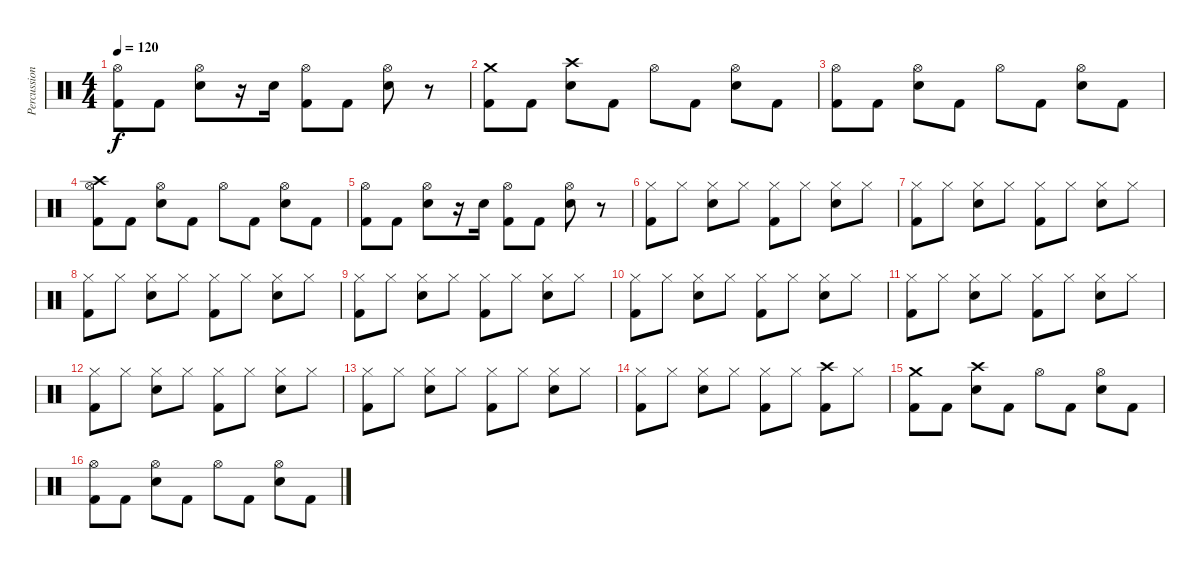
\track ("Percussion" "Percussion") {instrument percussion}
\staff {score}
\articulation defaults
\ts (4 4)
\tempo 120
\clef neutral
\ks c
("Hi-Hat (open)" "Kick (hit) 2").8{dy f} "Kick (hit) 2".8 ("Hi-Hat (open)" "Snare (hit) 2").8 r.16 "Snare (hit) 2".16 ("Hi-Hat (open)" "Kick (hit) 2").8 "Kick (hit) 2".8 ("Hi-Hat (open)" "Snare (hit) 2").8 r.8 |
("Crash medium (hit)" "Kick (hit) 2").8 "Kick (hit) 2".8 ("Crash high (hit)" "Snare (hit) 2").8 "Kick (hit) 2".8 "Hi-Hat (open)".8 "Kick (hit) 2".8 ("Hi-Hat (open)" "Snare (hit) 2").8 "Kick (hit) 2".8 |
("Hi-Hat (open)" "Kick (hit) 2").8 "Kick (hit) 2".8 ("Hi-Hat (open)" "Snare (hit) 2").8 "Kick (hit) 2".8 "Hi-Hat (open)".8 "Kick (hit) 2".8 ("Hi-Hat (open)" "Snare (hit) 2").8 "Kick (hit) 2".8 |
("Hi-Hat (open)" "Crash high (hit)" "Kick (hit) 2").8 "Kick (hit) 2".8 ("Hi-Hat (open)" "Snare (hit) 2").8 "Kick (hit) 2".8 "Hi-Hat (open)".8 "Kick (hit) 2".8 ("Hi-Hat (open)" "Snare (hit) 2").8 "Kick (hit) 2".8 |
("Hi-Hat (open)" "Kick (hit) 2").8 "Kick (hit) 2".8 ("Hi-Hat (open)" "Snare (hit) 2").8 r.16 "Snare (hit) 2".16 ("Hi-Hat (open)" "Kick (hit) 2").8 "Kick (hit) 2".8 ("Hi-Hat (open)" "Snare (hit) 2").8 r.8 |
("Hi-Hat (closed)" "Kick (hit) 2").8 "Hi-Hat (closed)".8 ("Hi-Hat (closed)" "Electric Snare (hit)").8 "Hi-Hat (closed)".8 ("Hi-Hat (closed)" "Kick (hit) 2").8 "Hi-Hat (closed)".8 ("Hi-Hat (closed)" "Snare (hit) 2").8 "Hi-Hat (closed)".8 |
("Hi-Hat (closed)" "Kick (hit) 2").8 "Hi-Hat (closed)".8 ("Hi-Hat (closed)" "Electric Snare (hit)").8 "Hi-Hat (closed)".8 ("Hi-Hat (closed)" "Kick (hit) 2").8 "Hi-Hat (closed)".8 ("Hi-Hat (closed)" "Snare (hit) 2").8 "Hi-Hat (closed)".8 |
("Hi-Hat (closed)" "Kick (hit) 2").8 "Hi-Hat (closed)".8 ("Hi-Hat (closed)" "Electric Snare (hit)").8 "Hi-Hat (closed)".8 ("Hi-Hat (closed)" "Kick (hit) 2").8 "Hi-Hat (closed)".8 ("Hi-Hat (closed)" "Snare (hit) 2").8 "Hi-Hat (closed)".8 |
("Hi-Hat (closed)" "Kick (hit) 2").8 "Hi-Hat (closed)".8 ("Hi-Hat (closed)" "Electric Snare (hit)").8 "Hi-Hat (closed)".8 ("Hi-Hat (closed)" "Kick (hit) 2").8 "Hi-Hat (closed)".8 ("Hi-Hat (closed)" "Snare (hit) 2").8 "Hi-Hat (closed)".8 |
("Hi-Hat (closed)" "Kick (hit) 2").8 "Hi-Hat (closed)".8 ("Hi-Hat (closed)" "Electric Snare (hit)").8 "Hi-Hat (closed)".8 ("Hi-Hat (closed)" "Kick (hit) 2").8 "Hi-Hat (closed)".8 ("Hi-Hat (closed)" "Snare (hit) 2").8 "Hi-Hat (closed)".8 |
("Hi-Hat (closed)" "Kick (hit) 2").8 "Hi-Hat (closed)".8 ("Hi-Hat (closed)" "Electric Snare (hit)").8 "Hi-Hat (closed)".8 ("Hi-Hat (closed)" "Kick (hit) 2").8 "Hi-Hat (closed)".8 ("Hi-Hat (closed)" "Snare (hit) 2").8 "Hi-Hat (closed)".8 |
("Hi-Hat (closed)" "Kick (hit) 2").8 "Hi-Hat (closed)".8 ("Hi-Hat (closed)" "Electric Snare (hit)").8 "Hi-Hat (closed)".8 ("Hi-Hat (closed)" "Kick (hit) 2").8 "Hi-Hat (closed)".8 ("Hi-Hat (closed)" "Snare (hit) 2").8 "Hi-Hat (closed)".8 |
("Hi-Hat (closed)" "Kick (hit) 2").8 "Hi-Hat (closed)".8 ("Hi-Hat (closed)" "Electric Snare (hit)").8 "Hi-Hat (closed)".8 ("Hi-Hat (closed)" "Kick (hit) 2").8 "Hi-Hat (closed)".8 ("Hi-Hat (closed)" "Snare (hit) 2").8 "Hi-Hat (closed)".8 |
("Hi-Hat (closed)" "Kick (hit) 2").8 "Hi-Hat (closed)".8 ("Hi-Hat (closed)" "Electric Snare (hit)").8 "Hi-Hat (closed)".8 ("Hi-Hat (closed)" "Kick (hit) 2").8 "Hi-Hat (closed)".8 ("Crash high (hit)" "Kick (hit) 2").8 "Hi-Hat (closed)".8 |
("Crash medium (hit)" "Kick (hit) 2").8 "Kick (hit) 2".8 ("Crash high (hit)" "Snare (hit) 2").8 "Kick (hit) 2".8 "Hi-Hat (open)".8 "Kick (hit) 2".8 ("Hi-Hat (open)" "Snare (hit) 2").8 "Kick (hit) 2".8 |
("Hi-Hat (open)" "Kick (hit) 2").8 "Kick (hit) 2".8 ("Hi-Hat (open)" "Snare (hit) 2").8 "Kick (hit) 2".8 "Hi-Hat (open)".8 "Kick (hit) 2".8 ("Hi-Hat (open)" "Snare (hit) 2").8 "Kick (hit) 2".8
